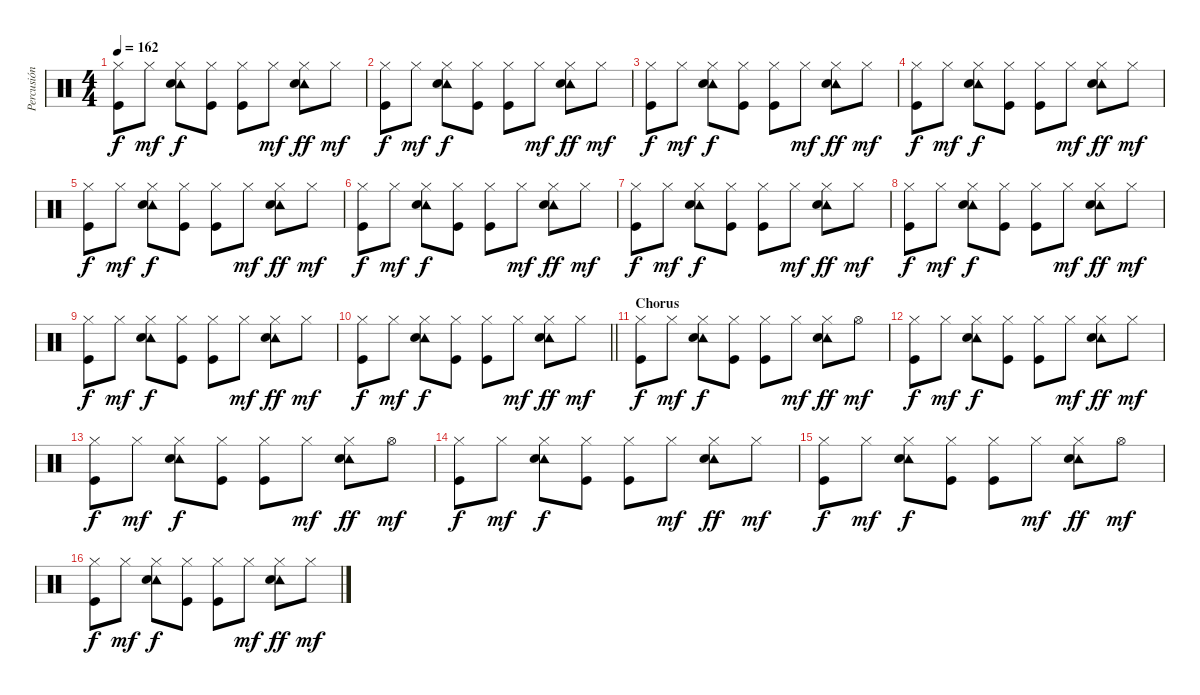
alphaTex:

\track ("Percusión" "Percusión") {instrument percussion}
\staff {score}
\articulation defaults
\ts (4 4)
\tempo 162
\clef neutral
\ks c
("Hi-Hat (closed)" "Kick (hit)").8{dy f} "Hi-Hat (closed)".8{dy mf} ("Hi-Hat (closed)" "Tambourine (hit)" "Snare (hit) 2").8{dy f} ("Hi-Hat (closed)" "Kick (hit)").8 ("Hi-Hat (closed)" "Kick (hit)").8 "Hi-Hat (closed)".8{dy mf} ("Hi-Hat (closed)" "Tambourine (hit)" "Snare (hit) 2").8{dy ff} "Hi-Hat (closed)".8{dy mf} |
("Hi-Hat (closed)" "Kick (hit)").8{dy f} "Hi-Hat (closed)".8{dy mf} ("Hi-Hat (closed)" "Tambourine (hit)" "Snare (hit) 2").8{dy f} ("Hi-Hat (closed)" "Kick (hit)").8 ("Hi-Hat (closed)" "Kick (hit)").8 "Hi-Hat (closed)".8{dy mf} ("Hi-Hat (closed)" "Tambourine (hit)" "Snare (hit) 2").8{dy ff} "Hi-Hat (closed)".8{dy mf} |
("Hi-Hat (closed)" "Kick (hit)").8{dy f} "Hi-Hat (closed)".8{dy mf} ("Hi-Hat (closed)" "Tambourine (hit)" "Snare (hit) 2").8{dy f} ("Hi-Hat (closed)" "Kick (hit)").8 ("Hi-Hat (closed)" "Kick (hit)").8 "Hi-Hat (closed)".8{dy mf} ("Hi-Hat (closed)" "Tambourine (hit)" "Snare (hit) 2").8{dy ff} "Hi-Hat (closed)".8{dy mf} |
("Hi-Hat (closed)" "Kick (hit)").8{dy f} "Hi-Hat (closed)".8{dy mf} ("Hi-Hat (closed)" "Tambourine (hit)" "Snare (hit) 2").8{dy f} ("Hi-Hat (closed)" "Kick (hit)").8 ("Hi-Hat (closed)" "Kick (hit)").8 "Hi-Hat (closed)".8{dy mf} ("Hi-Hat (closed)" "Tambourine (hit)" "Snare (hit) 2").8{dy ff} "Hi-Hat (closed)".8{dy mf} |
("Hi-Hat (closed)" "Kick (hit)").8{dy f} "Hi-Hat (closed)".8{dy mf} ("Hi-Hat (closed)" "Tambourine (hit)" "Snare (hit) 2").8{dy f} ("Hi-Hat (closed)" "Kick (hit)").8 ("Hi-Hat (closed)" "Kick (hit)").8 "Hi-Hat (closed)".8{dy mf} ("Hi-Hat (closed)" "Tambourine (hit)" "Snare (hit) 2").8{dy ff} "Hi-Hat (closed)".8{dy mf} |
("Hi-Hat (closed)" "Kick (hit)").8{dy f} "Hi-Hat (closed)".8{dy mf} ("Hi-Hat (closed)" "Tambourine (hit)" "Snare (hit) 2").8{dy f} ("Hi-Hat (closed)" "Kick (hit)").8 ("Hi-Hat (closed)" "Kick (hit)").8 "Hi-Hat (closed)".8{dy mf} ("Hi-Hat (closed)" "Tambourine (hit)" "Snare (hit) 2").8{dy ff} "Hi-Hat (closed)".8{dy mf} |
("Hi-Hat (closed)" "Kick (hit)").8{dy f} "Hi-Hat (closed)".8{dy mf} ("Hi-Hat (closed)" "Tambourine (hit)" "Snare (hit) 2").8{dy f} ("Hi-Hat (closed)" "Kick (hit)").8 ("Hi-Hat (closed)" "Kick (hit)").8 "Hi-Hat (closed)".8{dy mf} ("Hi-Hat (closed)" "Tambourine (hit)" "Snare (hit) 2").8{dy ff} "Hi-Hat (closed)".8{dy mf} |
("Hi-Hat (closed)" "Kick (hit)").8{dy f} "Hi-Hat (closed)".8{dy mf} ("Hi-Hat (closed)" "Tambourine (hit)" "Snare (hit) 2").8{dy f} ("Hi-Hat (closed)" "Kick (hit)").8 ("Hi-Hat (closed)" "Kick (hit)").8 "Hi-Hat (closed)".8{dy mf} ("Hi-Hat (closed)" "Tambourine (hit)" "Snare (hit) 2").8{dy ff} "Hi-Hat (closed)".8{dy mf} |
("Hi-Hat (closed)" "Kick (hit)").8{dy f} "Hi-Hat (closed)".8{dy mf} ("Hi-Hat (closed)" "Tambourine (hit)" "Snare (hit) 2").8{dy f} ("Hi-Hat (closed)" "Kick (hit)").8 ("Hi-Hat (closed)" "Kick (hit)").8 "Hi-Hat (closed)".8{dy mf} ("Hi-Hat (closed)" "Tambourine (hit)" "Snare (hit) 2").8{dy ff} "Hi-Hat (closed)".8{dy mf} |
\barLineRight lightlight
("Hi-Hat (closed)" "Kick (hit)").8{dy f} "Hi-Hat (closed)".8{dy mf} ("Hi-Hat (closed)" "Tambourine (hit)" "Snare (hit) 2").8{dy f} ("Hi-Hat (closed)" "Kick (hit)").8 ("Hi-Hat (closed)" "Kick (hit)").8 "Hi-Hat (closed)".8{dy mf} ("Hi-Hat (closed)" "Tambourine (hit)" "Snare (hit) 2").8{dy ff} "Hi-Hat (closed)".8{dy mf} |
\section ("" "Chorus")
("Hi-Hat (closed)" "Kick (hit)").8{dy f} "Hi-Hat (closed)".8{dy mf} ("Hi-Hat (closed)" "Tambourine (hit)" "Snare (hit) 2").8{dy f} ("Hi-Hat (closed)" "Kick (hit)").8 ("Hi-Hat (closed)" "Kick (hit)").8 "Hi-Hat (closed)".8{dy mf} ("Hi-Hat (closed)" "Tambourine (hit)" "Snare (hit) 2").8{dy ff} "Hi-Hat (open)".8{dy mf} |
("Hi-Hat (closed)" "Kick (hit)").8{dy f} "Hi-Hat (closed)".8{dy mf} ("Hi-Hat (closed)" "Tambourine (hit)" "Snare (hit) 2").8{dy f} ("Hi-Hat (closed)" "Kick (hit)").8 ("Hi-Hat (closed)" "Kick (hit)").8 "Hi-Hat (closed)".8{dy mf} ("Hi-Hat (closed)" "Tambourine (hit)" "Snare (hit) 2").8{dy ff} "Hi-Hat (closed)".8{dy mf} |
("Hi-Hat (closed)" "Kick (hit)").8{dy f} "Hi-Hat (closed)".8{dy mf} ("Hi-Hat (closed)" "Tambourine (hit)" "Snare (hit) 2").8{dy f} ("Hi-Hat (closed)" "Kick (hit)").8 ("Hi-Hat (closed)" "Kick (hit)").8 "Hi-Hat (closed)".8{dy mf} ("Hi-Hat (closed)" "Tambourine (hit)" "Snare (hit) 2").8{dy ff} "Hi-Hat (open)".8{dy mf} |
("Hi-Hat (closed)" "Kick (hit)").8{dy f} "Hi-Hat (closed)".8{dy mf} ("Hi-Hat (closed)" "Tambourine (hit)" "Snare (hit) 2").8{dy f} ("Hi-Hat (closed)" "Kick (hit)").8 ("Hi-Hat (closed)" "Kick (hit)").8 "Hi-Hat (closed)".8{dy mf} ("Hi-Hat (closed)" "Tambourine (hit)" "Snare (hit) 2").8{dy ff} "Hi-Hat (closed)".8{dy mf} |
("Hi-Hat (closed)" "Kick (hit)").8{dy f} "Hi-Hat (closed)".8{dy mf} ("Hi-Hat (closed)" "Tambourine (hit)" "Snare (hit) 2").8{dy f} ("Hi-Hat (closed)" "Kick (hit)").8 ("Hi-Hat (closed)" "Kick (hit)").8 "Hi-Hat (closed)".8{dy mf} ("Hi-Hat (closed)" "Tambourine (hit)" "Snare (hit) 2").8{dy ff} "Hi-Hat (open)".8{dy mf} |
("Hi-Hat (closed)" "Kick (hit)").8{dy f} "Hi-Hat (closed)".8{dy mf} ("Hi-Hat (closed)" "Tambourine (hit)" "Snare (hit) 2").8{dy f} ("Hi-Hat (closed)" "Kick (hit)").8 ("Hi-Hat (closed)" "Kick (hit)").8 "Hi-Hat (closed)".8{dy mf} ("Hi-Hat (closed)" "Tambourine (hit)" "Snare (hit) 2").8{dy ff} "Hi-Hat (closed)".8{dy mf}
